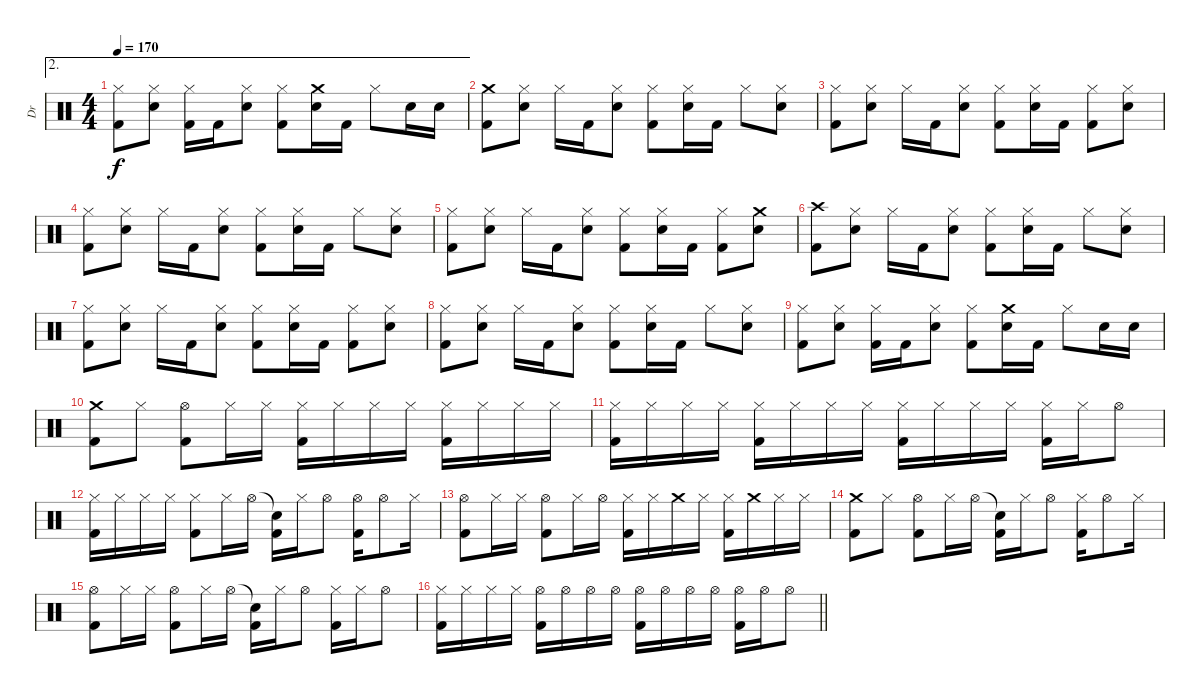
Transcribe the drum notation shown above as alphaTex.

\track ("Dr" "Dr") {instrument percussion}
\staff {score}
\articulation defaults
\ae 2
\ts (4 4)
\tempo 170
\clef neutral
\ks c
("Hi-Hat (closed)" "Kick (hit) 2").8{dy f} ("Hi-Hat (closed)" "Electric Snare (hit)").8 ("Hi-Hat (closed)" "Kick (hit) 2").16 "Kick (hit) 2".16 ("Hi-Hat (closed)" "Electric Snare (hit)").8 ("Hi-Hat (closed)" "Kick (hit) 2").8 ("Crash medium (hit)" "Electric Snare (hit)").16 "Kick (hit) 2".16 "Hi-Hat (closed)".8 "Electric Snare (hit)".16 "Electric Snare (hit)".16 |
("Crash medium (hit)" "Kick (hit) 2").8 ("Hi-Hat (closed)" "Electric Snare (hit)").8 "Hi-Hat (closed)".16 "Kick (hit) 2".16 ("Hi-Hat (closed)" "Electric Snare (hit)").8 ("Hi-Hat (closed)" "Kick (hit) 2").8 ("Hi-Hat (closed)" "Electric Snare (hit)").16 "Kick (hit) 2".16 "Hi-Hat (closed)".8 ("Hi-Hat (closed)" "Electric Snare (hit)").8 |
("Hi-Hat (closed)" "Kick (hit) 2").8 ("Hi-Hat (closed)" "Electric Snare (hit)").8 "Hi-Hat (closed)".16 "Kick (hit) 2".16 ("Hi-Hat (closed)" "Electric Snare (hit)").8 ("Hi-Hat (closed)" "Kick (hit) 2").8 ("Hi-Hat (closed)" "Electric Snare (hit)").16 "Kick (hit) 2".16 ("Hi-Hat (closed)" "Kick (hit) 2").8 ("Hi-Hat (closed)" "Electric Snare (hit)").8 |
("Hi-Hat (closed)" "Kick (hit) 2").8 ("Hi-Hat (closed)" "Electric Snare (hit)").8 "Hi-Hat (closed)".16 "Kick (hit) 2".16 ("Hi-Hat (closed)" "Electric Snare (hit)").8 ("Hi-Hat (closed)" "Kick (hit) 2").8 ("Hi-Hat (closed)" "Electric Snare (hit)").16 "Kick (hit) 2".16 "Hi-Hat (closed)".8 ("Hi-Hat (closed)" "Electric Snare (hit)").8 |
("Hi-Hat (closed)" "Kick (hit) 2").8 ("Hi-Hat (closed)" "Electric Snare (hit)").8 "Hi-Hat (closed)".16 "Kick (hit) 2".16 ("Hi-Hat (closed)" "Electric Snare (hit)").8 ("Hi-Hat (closed)" "Kick (hit) 2").8 ("Hi-Hat (closed)" "Electric Snare (hit)").16 "Kick (hit) 2".16 ("Hi-Hat (closed)" "Kick (hit) 2").8 ("Crash medium (hit)" "Electric Snare (hit)").8 |
("Crash high (hit)" "Kick (hit) 2").8 ("Hi-Hat (closed)" "Electric Snare (hit)").8 "Hi-Hat (closed)".16 "Kick (hit) 2".16 ("Hi-Hat (closed)" "Electric Snare (hit)").8 ("Hi-Hat (closed)" "Kick (hit) 2").8 ("Hi-Hat (closed)" "Electric Snare (hit)").16 "Kick (hit) 2".16 "Hi-Hat (closed)".8 ("Hi-Hat (closed)" "Electric Snare (hit)").8 |
("Hi-Hat (closed)" "Kick (hit) 2").8 ("Hi-Hat (closed)" "Electric Snare (hit)").8 "Hi-Hat (closed)".16 "Kick (hit) 2".16 ("Hi-Hat (closed)" "Electric Snare (hit)").8 ("Hi-Hat (closed)" "Kick (hit) 2").8 ("Hi-Hat (closed)" "Electric Snare (hit)").16 "Kick (hit) 2".16 ("Hi-Hat (closed)" "Kick (hit) 2").8 ("Hi-Hat (closed)" "Electric Snare (hit)").8 |
("Hi-Hat (closed)" "Kick (hit) 2").8 ("Hi-Hat (closed)" "Electric Snare (hit)").8 "Hi-Hat (closed)".16 "Kick (hit) 2".16 ("Hi-Hat (closed)" "Electric Snare (hit)").8 ("Hi-Hat (closed)" "Kick (hit) 2").8 ("Hi-Hat (closed)" "Electric Snare (hit)").16 "Kick (hit) 2".16 "Hi-Hat (closed)".8 ("Hi-Hat (closed)" "Electric Snare (hit)").8 |
("Hi-Hat (closed)" "Kick (hit) 2").8 ("Hi-Hat (closed)" "Electric Snare (hit)").8 ("Hi-Hat (closed)" "Kick (hit) 2").16 "Kick (hit) 2".16 ("Hi-Hat (closed)" "Electric Snare (hit)").8 ("Hi-Hat (closed)" "Kick (hit) 2").8 ("Crash medium (hit)" "Electric Snare (hit)").16 "Kick (hit) 2".16 "Hi-Hat (closed)".8 "Electric Snare (hit)".16 "Electric Snare (hit)".16 |
("Crash medium (hit)" "Kick (hit) 2").8 "Hi-Hat (closed)".8 ("Hi-Hat (open)" "Kick (hit) 2").8 "Hi-Hat (closed)".16 "Hi-Hat (closed)".16 ("Hi-Hat (closed)" "Kick (hit) 2").16 "Hi-Hat (closed)".16 "Hi-Hat (closed)".16 "Hi-Hat (closed)".16 ("Hi-Hat (closed)" "Kick (hit) 2").16 "Hi-Hat (closed)".16 "Hi-Hat (closed)".16 "Hi-Hat (closed)".16 |
("Hi-Hat (closed)" "Kick (hit) 2").16 "Hi-Hat (closed)".16 "Hi-Hat (closed)".16 "Hi-Hat (closed)".16 ("Hi-Hat (closed)" "Kick (hit) 2").16 "Hi-Hat (closed)".16 "Hi-Hat (closed)".16 "Hi-Hat (closed)".16 ("Hi-Hat (closed)" "Kick (hit) 2").16 "Hi-Hat (closed)".16 "Hi-Hat (closed)".16 "Hi-Hat (closed)".16 ("Hi-Hat (closed)" "Kick (hit) 2").16 "Hi-Hat (closed)".16 "Hi-Hat (open)".8 |
("Hi-Hat (closed)" "Kick (hit) 2").16 "Hi-Hat (closed)".16 "Hi-Hat (closed)".16 "Hi-Hat (closed)".16 ("Hi-Hat (closed)" "Kick (hit) 2").8 "Hi-Hat (closed)".16 "Hi-Hat (open)".16 ("Snare (hit)"{t} "Kick (hit) 2").16 "Hi-Hat (closed)".16 "Hi-Hat (open)".8 ("Hi-Hat (open)" "Kick (hit) 2").16 "Hi-Hat (open)".8 "Hi-Hat (closed)".16 |
("Hi-Hat (open)" "Kick (hit) 2").8 "Hi-Hat (closed)".16 "Hi-Hat (closed)".16 ("Hi-Hat (open)" "Kick (hit) 2").8 "Hi-Hat (closed)".16 "Hi-Hat (open)".16 ("Hi-Hat (closed)" "Kick (hit) 2").16 "Hi-Hat (closed)".16 "Crash medium (hit)".16 "Hi-Hat (closed)".16 ("Hi-Hat (closed)" "Kick (hit) 2").16 "Crash medium (hit)".16 "Hi-Hat (closed)".16 "Hi-Hat (closed)".16 |
("Crash medium (hit)" "Kick (hit) 2").8 "Hi-Hat (closed)".8 ("Hi-Hat (open)" "Kick (hit) 2").8 "Hi-Hat (closed)".16 "Hi-Hat (open)".16 ("Snare (hit)"{t} "Kick (hit) 2").16 "Hi-Hat (closed)".16 "Hi-Hat (open)".8 ("Hi-Hat (closed)" "Kick (hit) 2").16 "Hi-Hat (open)".8 "Hi-Hat (closed)".16 |
("Hi-Hat (open)" "Kick (hit) 2").8 "Hi-Hat (closed)".16 "Hi-Hat (closed)".16 ("Hi-Hat (open)" "Kick (hit) 2").8 "Hi-Hat (closed)".16 "Hi-Hat (open)".16 ("Snare (hit)"{t} "Kick (hit) 2").16 "Hi-Hat (closed)".16 "Hi-Hat (open)".8 ("Hi-Hat (closed)" "Kick (hit) 2").16 "Hi-Hat (closed)".16 "Hi-Hat (open)".8 |
\barLineRight lightlight
("Hi-Hat (closed)" "Kick (hit) 2").16 "Hi-Hat (closed)".16 "Hi-Hat (closed)".16 "Hi-Hat (closed)".16 ("Hi-Hat (open)" "Kick (hit) 2").16 "Hi-Hat (open)".16 "Hi-Hat (open)".16 "Hi-Hat (open)".16 ("Hi-Hat (open)" "Kick (hit) 2").16 "Hi-Hat (open)".16 "Hi-Hat (open)".16 "Hi-Hat (open)".16 ("Hi-Hat (open)" "Kick (hit) 2").16 "Hi-Hat (open)".16 "Hi-Hat (open)".8
